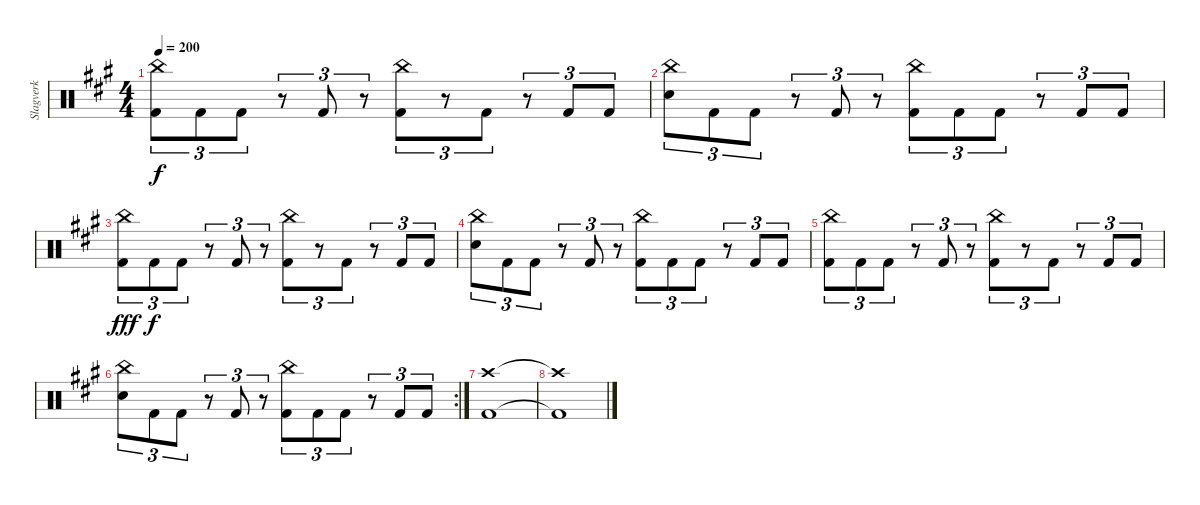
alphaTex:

\track ("Slagverk" "Slagverk") {instrument percussion}
\staff {score}
\articulation defaults
\ts (4 4)
\tempo 200
\clef neutral
\ks a
("China (hit)" "Kick (hit) 2").8{tu (3 2) dy f} "Kick (hit) 2".8{tu (3 2)} "Kick (hit) 2".8{tu (3 2)} r.8{tu (3 2)} "Kick (hit) 2".8{tu (3 2)} r.8{tu (3 2)} ("China (hit)" "Kick (hit) 2").8{tu (3 2)} r.8{tu (3 2)} "Kick (hit) 2".8{tu (3 2)} r.8{tu (3 2)} "Kick (hit) 2".8{tu (3 2)} "Kick (hit) 2".8{tu (3 2)} |
("China (hit)" "Snare (hit) 2").8{tu (3 2)} "Kick (hit) 2".8{tu (3 2)} "Kick (hit) 2".8{tu (3 2)} r.8{tu (3 2)} "Kick (hit) 2".8{tu (3 2)} r.8{tu (3 2)} ("China (hit)" "Kick (hit) 2").8{tu (3 2)} "Kick (hit) 2".8{tu (3 2)} "Kick (hit) 2".8{tu (3 2)} r.8{tu (3 2)} "Kick (hit) 2".8{tu (3 2)} "Kick (hit) 2".8{tu (3 2)} |
("China (hit)" "Kick (hit) 2").8{tu (3 2) dy fff} "Kick (hit) 2".8{tu (3 2) dy f} "Kick (hit) 2".8{tu (3 2)} r.8{tu (3 2)} "Kick (hit) 2".8{tu (3 2)} r.8{tu (3 2)} ("China (hit)" "Kick (hit) 2").8{tu (3 2)} r.8{tu (3 2)} "Kick (hit) 2".8{tu (3 2)} r.8{tu (3 2)} "Kick (hit) 2".8{tu (3 2)} "Kick (hit) 2".8{tu (3 2)} |
("China (hit)" "Snare (hit) 2").8{tu (3 2)} "Kick (hit) 2".8{tu (3 2)} "Kick (hit) 2".8{tu (3 2)} r.8{tu (3 2)} "Kick (hit) 2".8{tu (3 2)} r.8{tu (3 2)} ("China (hit)" "Kick (hit) 2").8{tu (3 2)} "Kick (hit) 2".8{tu (3 2)} "Kick (hit) 2".8{tu (3 2)} r.8{tu (3 2)} "Kick (hit) 2".8{tu (3 2)} "Kick (hit) 2".8{tu (3 2)} |
("China (hit)" "Kick (hit) 2").8{tu (3 2)} "Kick (hit) 2".8{tu (3 2)} "Kick (hit) 2".8{tu (3 2)} r.8{tu (3 2)} "Kick (hit) 2".8{tu (3 2)} r.8{tu (3 2)} ("China (hit)" "Kick (hit) 2").8{tu (3 2)} r.8{tu (3 2)} "Kick (hit) 2".8{tu (3 2)} r.8{tu (3 2)} "Kick (hit) 2".8{tu (3 2)} "Kick (hit) 2".8{tu (3 2)} |
\rc 2
("China (hit)" "Snare (hit) 2").8{tu (3 2)} "Kick (hit) 2".8{tu (3 2)} "Kick (hit) 2".8{tu (3 2)} r.8{tu (3 2)} "Kick (hit) 2".8{tu (3 2)} r.8{tu (3 2)} ("China (hit)" "Kick (hit) 2").8{tu (3 2)} "Kick (hit) 2".8{tu (3 2)} "Kick (hit) 2".8{tu (3 2)} r.8{tu (3 2)} "Kick (hit) 2".8{tu (3 2)} "Kick (hit) 2".8{tu (3 2)} |
("Crash high (hit)" "Kick (hit) 2").1 |
("Crash high (hit)"{t} "Kick (hit) 2"{t}).1
